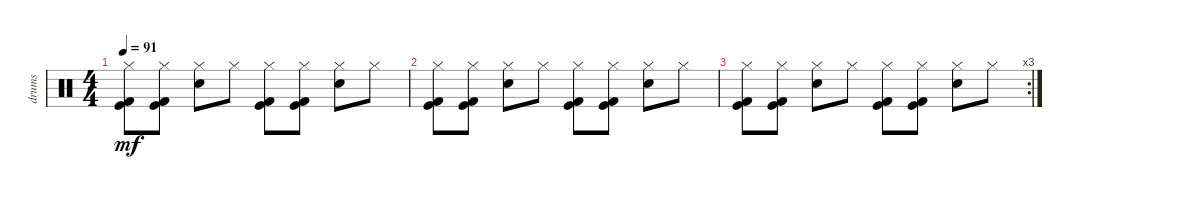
\track ("drums" "drums") {instrument percussion}
\staff {score}
\articulation defaults
\ts (4 4)
\tempo 91
\clef neutral
\ks c
("Hi-Hat (closed)" "Kick (hit) 2" "Kick (hit)").8{dy mf} ("Hi-Hat (closed)" "Kick (hit) 2" "Kick (hit)").8 ("Hi-Hat (closed)" "Electric Snare (hit)").8 "Hi-Hat (closed)".8 ("Hi-Hat (closed)" "Kick (hit) 2" "Kick (hit)").8 ("Hi-Hat (closed)" "Kick (hit) 2" "Kick (hit)").8 ("Hi-Hat (closed)" "Electric Snare (hit)").8 "Hi-Hat (closed)".8 |
("Hi-Hat (closed)" "Kick (hit) 2" "Kick (hit)").8 ("Hi-Hat (closed)" "Kick (hit) 2" "Kick (hit)").8 ("Hi-Hat (closed)" "Electric Snare (hit)").8 "Hi-Hat (closed)".8 ("Hi-Hat (closed)" "Kick (hit) 2" "Kick (hit)").8 ("Hi-Hat (closed)" "Kick (hit) 2" "Kick (hit)").8 ("Hi-Hat (closed)" "Electric Snare (hit)").8 "Hi-Hat (closed)".8 |
\rc 3
("Hi-Hat (closed)" "Kick (hit) 2" "Kick (hit)").8 ("Hi-Hat (closed)" "Kick (hit) 2" "Kick (hit)").8 ("Hi-Hat (closed)" "Electric Snare (hit)").8 "Hi-Hat (closed)".8 ("Hi-Hat (closed)" "Kick (hit) 2" "Kick (hit)").8 ("Hi-Hat (closed)" "Kick (hit) 2" "Kick (hit)").8 ("Hi-Hat (closed)" "Electric Snare (hit)").8 "Hi-Hat (closed)".8
